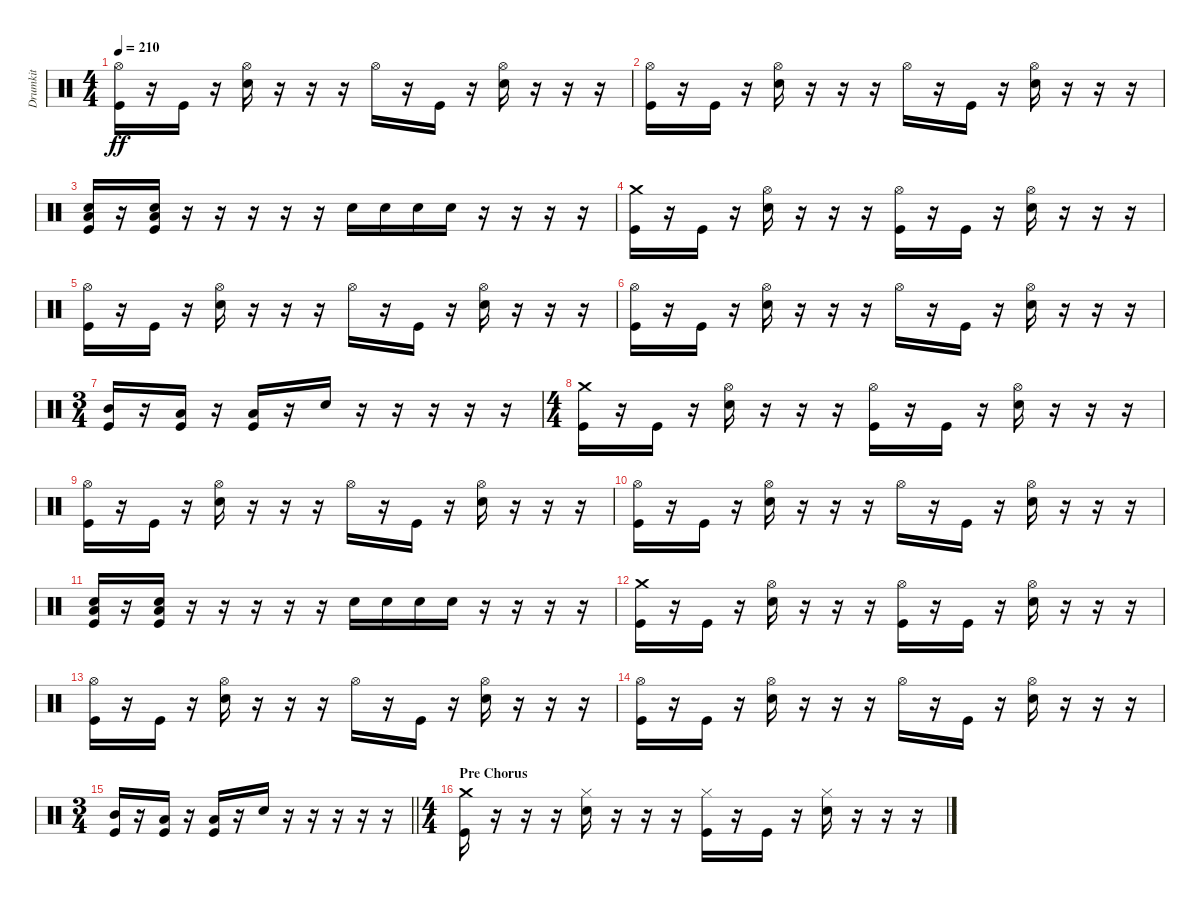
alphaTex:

\track ("Drumkit" "Drumkit") {instrument percussion}
\staff {score}
\articulation defaults
\ts (4 4)
\tempo 210
\clef neutral
\ks c
("Hi-Hat (open)" "Kick (hit)").16{dy ff} r.16 "Kick (hit)".16 r.16 ("Hi-Hat (open)" "Snare (hit) 2").16 r.16 r.16 r.16 "Hi-Hat (open)".16 r.16 "Kick (hit)".16 r.16 ("Hi-Hat (open)" "Snare (hit) 2").16 r.16 r.16 r.16 |
("Hi-Hat (open)" "Kick (hit)").16 r.16 "Kick (hit)".16 r.16 ("Hi-Hat (open)" "Snare (hit) 2").16 r.16 r.16 r.16 "Hi-Hat (open)".16 r.16 "Kick (hit)".16 r.16 ("Hi-Hat (open)" "Snare (hit) 2").16 r.16 r.16 r.16 |
("Low Floor Tom (hit)" "Snare (hit) 2" "Kick (hit)").16 r.16 ("Low Floor Tom (hit)" "Snare (hit) 2" "Kick (hit)").16 r.16 r.16 r.16 r.16 r.16 "Snare (hit) 2".16 "Snare (hit) 2".16 "Snare (hit) 2".16 "Snare (hit) 2".16 r.16 r.16 r.16 r.16 |
("Crash medium (hit)" "Kick (hit)").16 r.16 "Kick (hit)".16 r.16 ("Hi-Hat (open)" "Snare (hit) 2").16 r.16 r.16 r.16 ("Hi-Hat (open)" "Kick (hit)").16 r.16 "Kick (hit)".16 r.16 ("Hi-Hat (open)" "Snare (hit) 2").16 r.16 r.16 r.16 |
("Hi-Hat (open)" "Kick (hit)").16 r.16 "Kick (hit)".16 r.16 ("Hi-Hat (open)" "Snare (hit) 2").16 r.16 r.16 r.16 "Hi-Hat (open)".16 r.16 "Kick (hit)".16 r.16 ("Hi-Hat (open)" "Snare (hit) 2").16 r.16 r.16 r.16 |
("Hi-Hat (open)" "Kick (hit)").16 r.16 "Kick (hit)".16 r.16 ("Hi-Hat (open)" "Snare (hit) 2").16 r.16 r.16 r.16 "Hi-Hat (open)".16 r.16 "Kick (hit)".16 r.16 ("Hi-Hat (open)" "Snare (hit) 2").16 r.16 r.16 r.16 |
\ts (3 4)
("Mid Tom (hit)" "Kick (hit)").16 r.16 ("Low Tom (hit)" "Kick (hit)").16 r.16 ("Low Floor Tom (hit)" "Kick (hit)").16 r.16 "Snare (hit) 2".16 r.16 r.16 r.16 r.16 r.16 |
\ts (4 4)
("Crash medium (hit)" "Kick (hit)").16 r.16 "Kick (hit)".16 r.16 ("Hi-Hat (open)" "Snare (hit) 2").16 r.16 r.16 r.16 ("Hi-Hat (open)" "Kick (hit)").16 r.16 "Kick (hit)".16 r.16 ("Hi-Hat (open)" "Snare (hit) 2").16 r.16 r.16 r.16 |
("Hi-Hat (open)" "Kick (hit)").16 r.16 "Kick (hit)".16 r.16 ("Hi-Hat (open)" "Snare (hit) 2").16 r.16 r.16 r.16 "Hi-Hat (open)".16 r.16 "Kick (hit)".16 r.16 ("Hi-Hat (open)" "Snare (hit) 2").16 r.16 r.16 r.16 |
("Hi-Hat (open)" "Kick (hit)").16 r.16 "Kick (hit)".16 r.16 ("Hi-Hat (open)" "Snare (hit) 2").16 r.16 r.16 r.16 "Hi-Hat (open)".16 r.16 "Kick (hit)".16 r.16 ("Hi-Hat (open)" "Snare (hit) 2").16 r.16 r.16 r.16 |
("Low Floor Tom (hit)" "Snare (hit) 2" "Kick (hit)").16 r.16 ("Low Floor Tom (hit)" "Snare (hit) 2" "Kick (hit)").16 r.16 r.16 r.16 r.16 r.16 "Snare (hit) 2".16 "Snare (hit) 2".16 "Snare (hit) 2".16 "Snare (hit) 2".16 r.16 r.16 r.16 r.16 |
("Crash medium (hit)" "Kick (hit)").16 r.16 "Kick (hit)".16 r.16 ("Hi-Hat (open)" "Snare (hit) 2").16 r.16 r.16 r.16 ("Hi-Hat (open)" "Kick (hit)").16 r.16 "Kick (hit)".16 r.16 ("Hi-Hat (open)" "Snare (hit) 2").16 r.16 r.16 r.16 |
("Hi-Hat (open)" "Kick (hit)").16 r.16 "Kick (hit)".16 r.16 ("Hi-Hat (open)" "Snare (hit) 2").16 r.16 r.16 r.16 "Hi-Hat (open)".16 r.16 "Kick (hit)".16 r.16 ("Hi-Hat (open)" "Snare (hit) 2").16 r.16 r.16 r.16 |
("Hi-Hat (open)" "Kick (hit)").16 r.16 "Kick (hit)".16 r.16 ("Hi-Hat (open)" "Snare (hit) 2").16 r.16 r.16 r.16 "Hi-Hat (open)".16 r.16 "Kick (hit)".16 r.16 ("Hi-Hat (open)" "Snare (hit) 2").16 r.16 r.16 r.16 |
\ts (3 4)
\barLineRight lightlight
("Mid Tom (hit)" "Kick (hit)").16 r.16 ("Low Tom (hit)" "Kick (hit)").16 r.16 ("Low Floor Tom (hit)" "Kick (hit)").16 r.16 "Snare (hit) 2".16 r.16 r.16 r.16 r.16 r.16 |
\ts (4 4)
\section ("" "Pre Chorus")
("Crash medium (hit)" "Kick (hit)").16 r.16 r.16 r.16 ("Hi-Hat (closed)" "Snare (hit) 2").16 r.16 r.16 r.16 ("Hi-Hat (closed)" "Kick (hit)").16 r.16 "Kick (hit)".16 r.16 ("Hi-Hat (closed)" "Snare (hit) 2").16 r.16 r.16 r.16
